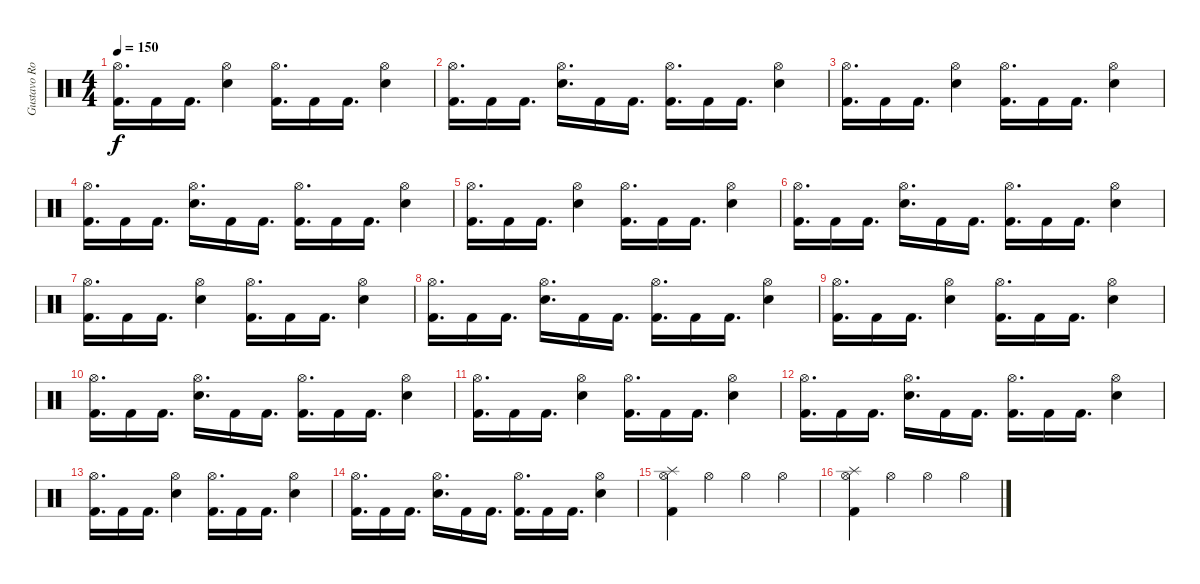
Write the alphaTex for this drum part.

\track ("Gustavo Rowek" "Gustavo Ro") {instrument percussion}
\staff {score}
\articulation defaults
\ts (4 4)
\tempo 150
\clef neutral
\ks c
("Hi-Hat (open)" "Kick (hit) 2").16{d dy f} "Kick (hit) 2".16 "Kick (hit) 2".16{d} ("Hi-Hat (open)" "Electric Snare (hit)").4 ("Hi-Hat (open)" "Kick (hit) 2").16{d} "Kick (hit) 2".16 "Kick (hit) 2".16{d} ("Hi-Hat (open)" "Electric Snare (hit)").4 |
("Hi-Hat (open)" "Kick (hit) 2").16{d} "Kick (hit) 2".16 "Kick (hit) 2".16{d} ("Hi-Hat (open)" "Electric Snare (hit)").16{d} "Kick (hit) 2".16 "Kick (hit) 2".16{d} ("Hi-Hat (open)" "Kick (hit) 2").16{d} "Kick (hit) 2".16 "Kick (hit) 2".16{d} ("Hi-Hat (open)" "Electric Snare (hit)").4 |
("Hi-Hat (open)" "Kick (hit) 2").16{d} "Kick (hit) 2".16 "Kick (hit) 2".16{d} ("Hi-Hat (open)" "Electric Snare (hit)").4 ("Hi-Hat (open)" "Kick (hit) 2").16{d} "Kick (hit) 2".16 "Kick (hit) 2".16{d} ("Hi-Hat (open)" "Electric Snare (hit)").4 |
("Hi-Hat (open)" "Kick (hit) 2").16{d} "Kick (hit) 2".16 "Kick (hit) 2".16{d} ("Hi-Hat (open)" "Electric Snare (hit)").16{d} "Kick (hit) 2".16 "Kick (hit) 2".16{d} ("Hi-Hat (open)" "Kick (hit) 2").16{d} "Kick (hit) 2".16 "Kick (hit) 2".16{d} ("Hi-Hat (open)" "Electric Snare (hit)").4 |
("Hi-Hat (open)" "Kick (hit) 2").16{d} "Kick (hit) 2".16 "Kick (hit) 2".16{d} ("Hi-Hat (open)" "Electric Snare (hit)").4 ("Hi-Hat (open)" "Kick (hit) 2").16{d} "Kick (hit) 2".16 "Kick (hit) 2".16{d} ("Hi-Hat (open)" "Electric Snare (hit)").4 |
("Hi-Hat (open)" "Kick (hit) 2").16{d} "Kick (hit) 2".16 "Kick (hit) 2".16{d} ("Hi-Hat (open)" "Electric Snare (hit)").16{d} "Kick (hit) 2".16 "Kick (hit) 2".16{d} ("Hi-Hat (open)" "Kick (hit) 2").16{d} "Kick (hit) 2".16 "Kick (hit) 2".16{d} ("Hi-Hat (open)" "Electric Snare (hit)").4 |
("Hi-Hat (open)" "Kick (hit) 2").16{d} "Kick (hit) 2".16 "Kick (hit) 2".16{d} ("Hi-Hat (open)" "Electric Snare (hit)").4 ("Hi-Hat (open)" "Kick (hit) 2").16{d} "Kick (hit) 2".16 "Kick (hit) 2".16{d} ("Hi-Hat (open)" "Electric Snare (hit)").4 |
("Hi-Hat (open)" "Kick (hit) 2").16{d} "Kick (hit) 2".16 "Kick (hit) 2".16{d} ("Hi-Hat (open)" "Electric Snare (hit)").16{d} "Kick (hit) 2".16 "Kick (hit) 2".16{d} ("Hi-Hat (open)" "Kick (hit) 2").16{d} "Kick (hit) 2".16 "Kick (hit) 2".16{d} ("Hi-Hat (open)" "Electric Snare (hit)").4 |
("Hi-Hat (open)" "Kick (hit) 2").16{d} "Kick (hit) 2".16 "Kick (hit) 2".16{d} ("Hi-Hat (open)" "Electric Snare (hit)").4 ("Hi-Hat (open)" "Kick (hit) 2").16{d} "Kick (hit) 2".16 "Kick (hit) 2".16{d} ("Hi-Hat (open)" "Electric Snare (hit)").4 |
("Hi-Hat (open)" "Kick (hit) 2").16{d} "Kick (hit) 2".16 "Kick (hit) 2".16{d} ("Hi-Hat (open)" "Electric Snare (hit)").16{d} "Kick (hit) 2".16 "Kick (hit) 2".16{d} ("Hi-Hat (open)" "Kick (hit) 2").16{d} "Kick (hit) 2".16 "Kick (hit) 2".16{d} ("Hi-Hat (open)" "Electric Snare (hit)").4 |
("Hi-Hat (open)" "Kick (hit) 2").16{d} "Kick (hit) 2".16 "Kick (hit) 2".16{d} ("Hi-Hat (open)" "Electric Snare (hit)").4 ("Hi-Hat (open)" "Kick (hit) 2").16{d} "Kick (hit) 2".16 "Kick (hit) 2".16{d} ("Hi-Hat (open)" "Electric Snare (hit)").4 |
("Hi-Hat (open)" "Kick (hit) 2").16{d} "Kick (hit) 2".16 "Kick (hit) 2".16{d} ("Hi-Hat (open)" "Electric Snare (hit)").16{d} "Kick (hit) 2".16 "Kick (hit) 2".16{d} ("Hi-Hat (open)" "Kick (hit) 2").16{d} "Kick (hit) 2".16 "Kick (hit) 2".16{d} ("Hi-Hat (open)" "Electric Snare (hit)").4 |
("Hi-Hat (open)" "Kick (hit) 2").16{d} "Kick (hit) 2".16 "Kick (hit) 2".16{d} ("Hi-Hat (open)" "Electric Snare (hit)").4 ("Hi-Hat (open)" "Kick (hit) 2").16{d} "Kick (hit) 2".16 "Kick (hit) 2".16{d} ("Hi-Hat (open)" "Electric Snare (hit)").4 |
("Hi-Hat (open)" "Kick (hit) 2").16{d} "Kick (hit) 2".16 "Kick (hit) 2".16{d} ("Hi-Hat (open)" "Electric Snare (hit)").16{d} "Kick (hit) 2".16 "Kick (hit) 2".16{d} ("Hi-Hat (open)" "Kick (hit) 2").16{d} "Kick (hit) 2".16 "Kick (hit) 2".16{d} ("Hi-Hat (open)" "Electric Snare (hit)").4 |
("Splash (hit)" "Hi-Hat (open)" "Kick (hit) 2").4 "Hi-Hat (open)".4 "Hi-Hat (open)".4 "Hi-Hat (open)".4 |
("Splash (hit)" "Hi-Hat (open)" "Kick (hit) 2").4 "Hi-Hat (open)".4 "Hi-Hat (open)".4 "Hi-Hat (open)".4
